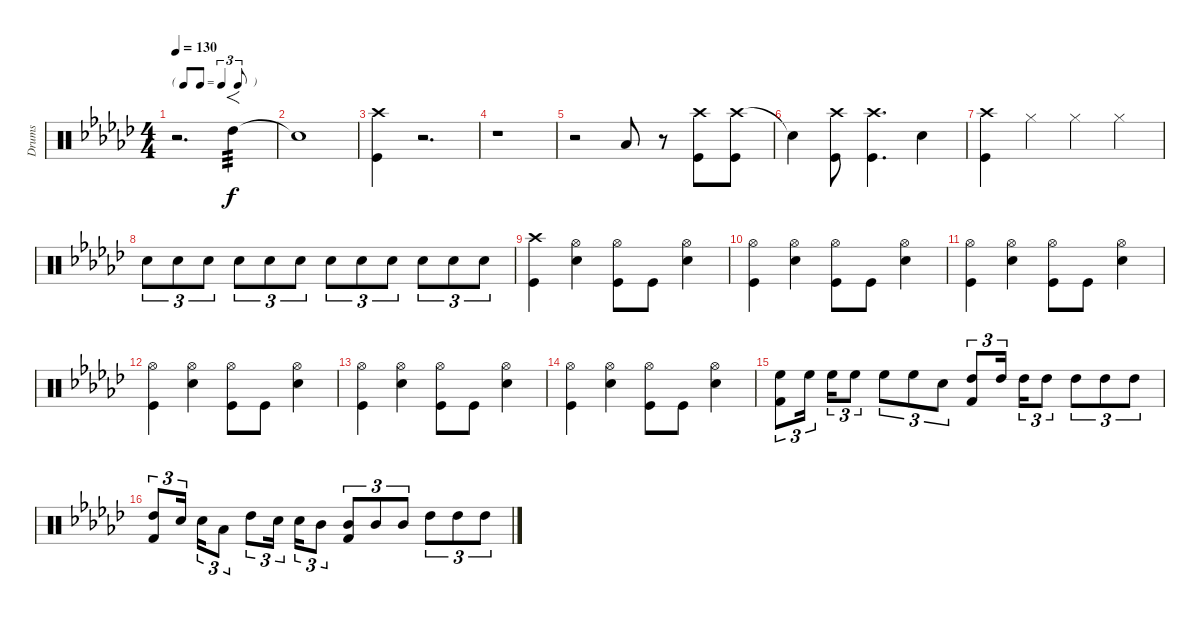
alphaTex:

\track ("Drums" "Drums") {instrument percussion}
\staff {score}
\articulation defaults
\ts (4 4)
\tf triplet8th
\tempo 130
\clef neutral
\ks gb
r.2{d dy f} "High Tom (hit)".4{f tp 3} |
"Snare (hit)"{t}.1 |
("Crash high (hit)" "Kick (hit)").4 r.2{d} |
r.1 |
r.2 "Low Tom (hit)".8 r.8 ("Crash high (hit)" "Kick (hit)").8 ("Crash high (hit)" "Kick (hit)").8 |
"Snare (hit)"{t}.4 ("Crash high (hit)" "Kick (hit)").8 ("Crash high (hit)" "Kick (hit)").4{d} "Snare (hit) 2".4 |
("Crash high (hit)" "Kick (hit)").4 "Hi-Hat (closed)".4 "Hi-Hat (closed)".4 "Hi-Hat (closed)".4 |
"Snare (hit) 2".8{tu (3 2)} "Snare (hit) 2".8{tu (3 2)} "Snare (hit) 2".8{tu (3 2)} "Snare (hit) 2".8{tu (3 2)} "Snare (hit) 2".8{tu (3 2)} "Snare (hit) 2".8{tu (3 2)} "Snare (hit) 2".8{tu (3 2)} "Snare (hit) 2".8{tu (3 2)} "Snare (hit) 2".8{tu (3 2)} "Snare (hit) 2".8{tu (3 2)} "Snare (hit) 2".8{tu (3 2)} "Snare (hit) 2".8{tu (3 2)} |
("Crash high (hit)" "Kick (hit)").4 ("Hi-Hat (open)" "Snare (hit) 2").4 ("Hi-Hat (open)" "Kick (hit)").8 "Kick (hit)".8 ("Hi-Hat (open)" "Snare (hit) 2").4 |
("Hi-Hat (open)" "Kick (hit)").4 ("Hi-Hat (open)" "Snare (hit) 2").4 ("Hi-Hat (open)" "Kick (hit)").8 "Kick (hit)".8 ("Hi-Hat (open)" "Snare (hit) 2").4 |
("Hi-Hat (open)" "Kick (hit)").4 ("Hi-Hat (open)" "Snare (hit) 2").4 ("Hi-Hat (open)" "Kick (hit)").8 "Kick (hit)".8 ("Hi-Hat (open)" "Snare (hit) 2").4 |
("Hi-Hat (open)" "Kick (hit)").4 ("Hi-Hat (open)" "Snare (hit) 2").4 ("Hi-Hat (open)" "Kick (hit)").8 "Kick (hit)".8 ("Hi-Hat (open)" "Snare (hit) 2").4 |
("Hi-Hat (open)" "Kick (hit)").4 ("Hi-Hat (open)" "Snare (hit) 2").4 ("Hi-Hat (open)" "Kick (hit)").8 "Kick (hit)".8 ("Hi-Hat (open)" "Snare (hit) 2").4 |
("Hi-Hat (open)" "Kick (hit)").4 ("Hi-Hat (open)" "Snare (hit) 2").4 ("Hi-Hat (open)" "Kick (hit)").8 "Kick (hit)".8 ("Hi-Hat (open)" "Snare (hit) 2").4 |
("High Floor Tom (hit)" "Kick (hit) 2").8{tu (3 2)} "High Floor Tom (hit)".16{tu (3 2) beam splitsecondary} "High Floor Tom (hit)".16{tu (3 2)} "High Floor Tom (hit)".8{tu (3 2)} "High Floor Tom (hit)".8{tu (3 2)} "High Floor Tom (hit)".8{tu (3 2)} "Snare (hit) 2".8{tu (3 2)} ("High Tom (hit)" "Kick (hit) 2").8{tu (3 2)} "High Tom (hit)".16{tu (3 2) beam splitsecondary} "High Tom (hit)".16{tu (3 2)} "High Tom (hit)".8{tu (3 2)} "High Tom (hit)".8{tu (3 2)} "High Tom (hit)".8{tu (3 2)} "High Tom (hit)".8{tu (3 2)} |
("High Tom (hit)" "Kick (hit) 2").8{tu (3 2)} "Snare (hit) 2".16{tu (3 2) beam splitsecondary} "Snare (hit) 2".16{tu (3 2)} "Low Tom (hit)".8{tu (3 2)} "High Tom (hit)".8{tu (3 2)} "Snare (hit) 2".16{tu (3 2) beam splitsecondary} "Snare (hit) 2".16{tu (3 2)} "Mid Tom (hit)".8{tu (3 2)} ("Mid Tom (hit)" "Kick (hit) 2").8{tu (3 2)} "Mid Tom (hit)".8{tu (3 2)} "Mid Tom (hit)".8{tu (3 2)} "High Tom (hit)".8{tu (3 2)} "High Tom (hit)".8{tu (3 2)} "High Tom (hit)".8{tu (3 2)}
